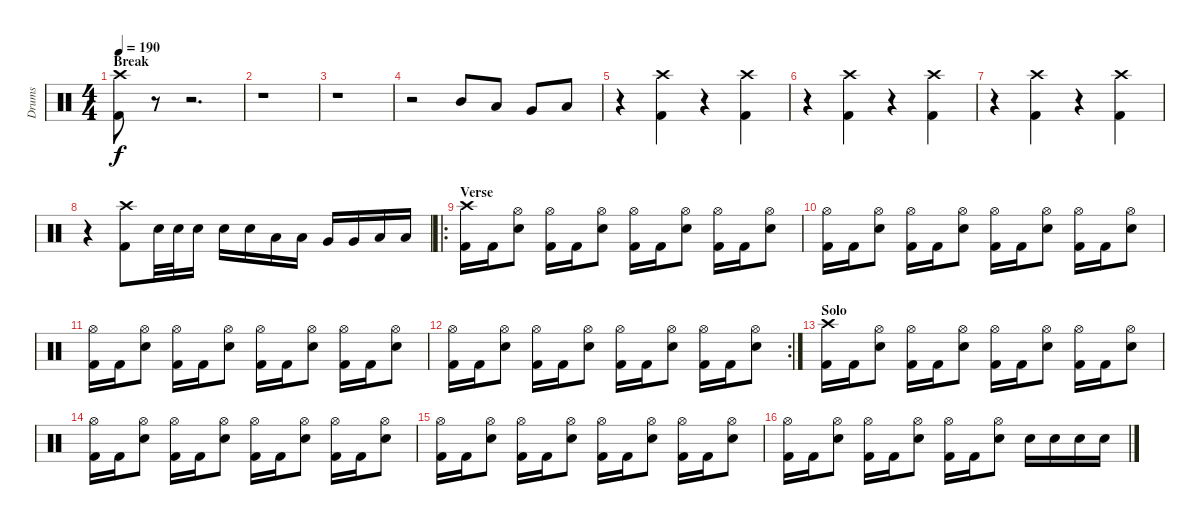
\track ("Drums" "Drums") {instrument percussion}
\staff {score}
\articulation defaults
\ts (4 4)
\section ("" "Break")
\tempo 190
\clef neutral
\ks c
("Crash high (hit)" "Kick (hit) 2").8{dy f} r.8{volume 0} r.2{d} |
r.1 |
r.1 |
r.2{volume 14} "Mid Tom (hit)".8 "Low Tom (hit)".8 "Very Low Tom (hit)".8 "Low Tom (hit)".8 |
r.4 ("Crash high (hit)" "Kick (hit) 2").4 r.4 ("Crash high (hit)" "Kick (hit) 2").4 |
r.4 ("Crash high (hit)" "Kick (hit) 2").4 r.4 ("Crash high (hit)" "Kick (hit) 2").4 |
r.4 ("Crash high (hit)" "Kick (hit) 2").4 r.4 ("Crash high (hit)" "Kick (hit) 2").4 |
r.4 ("Crash high (hit)" "Kick (hit) 2").8 "Electric Snare (hit)".32 "Electric Snare (hit)".32 "Electric Snare (hit)".16 "Electric Snare (hit)".16 "Electric Snare (hit)".16 "Low Tom (hit)".16 "Low Tom (hit)".16 "Very Low Tom (hit)".16 "Very Low Tom (hit)".16 "Low Floor Tom (hit)".16 "Low Floor Tom (hit)".16 |
\ro
\section ("" "Verse")
("Crash high (hit)" "Kick (hit) 2").16 "Kick (hit) 2".16 ("Hi-Hat (open)" "Electric Snare (hit)").8 ("Hi-Hat (open)" "Kick (hit) 2").16 "Kick (hit) 2".16 ("Hi-Hat (open)" "Electric Snare (hit)").8 ("Hi-Hat (open)" "Kick (hit) 2").16 "Kick (hit) 2".16 ("Hi-Hat (open)" "Electric Snare (hit)").8 ("Hi-Hat (open)" "Kick (hit) 2").16 "Kick (hit) 2".16 ("Hi-Hat (open)" "Electric Snare (hit)").8 |
("Hi-Hat (open)" "Kick (hit) 2").16 "Kick (hit) 2".16 ("Hi-Hat (open)" "Electric Snare (hit)").8 ("Hi-Hat (open)" "Kick (hit) 2").16 "Kick (hit) 2".16 ("Hi-Hat (open)" "Electric Snare (hit)").8 ("Hi-Hat (open)" "Kick (hit) 2").16 "Kick (hit) 2".16 ("Hi-Hat (open)" "Electric Snare (hit)").8 ("Hi-Hat (open)" "Kick (hit) 2").16 "Kick (hit) 2".16 ("Hi-Hat (open)" "Electric Snare (hit)").8 |
("Hi-Hat (open)" "Kick (hit) 2").16 "Kick (hit) 2".16 ("Hi-Hat (open)" "Electric Snare (hit)").8 ("Hi-Hat (open)" "Kick (hit) 2").16 "Kick (hit) 2".16 ("Hi-Hat (open)" "Electric Snare (hit)").8 ("Hi-Hat (open)" "Kick (hit) 2").16 "Kick (hit) 2".16 ("Hi-Hat (open)" "Electric Snare (hit)").8 ("Hi-Hat (open)" "Kick (hit) 2").16 "Kick (hit) 2".16 ("Hi-Hat (open)" "Electric Snare (hit)").8 |
\rc 2
("Hi-Hat (open)" "Kick (hit) 2").16 "Kick (hit) 2".16 ("Hi-Hat (open)" "Electric Snare (hit)").8 ("Hi-Hat (open)" "Kick (hit) 2").16 "Kick (hit) 2".16 ("Hi-Hat (open)" "Electric Snare (hit)").8 ("Hi-Hat (open)" "Kick (hit) 2").16 "Kick (hit) 2".16 ("Hi-Hat (open)" "Electric Snare (hit)").8 ("Hi-Hat (open)" "Kick (hit) 2").16 "Kick (hit) 2".16 ("Hi-Hat (open)" "Electric Snare (hit)").8 |
\section ("" "Solo")
("Crash high (hit)" "Kick (hit) 2").16 "Kick (hit) 2".16 ("Hi-Hat (open)" "Electric Snare (hit)").8 ("Hi-Hat (open)" "Kick (hit) 2").16 "Kick (hit) 2".16 ("Hi-Hat (open)" "Electric Snare (hit)").8 ("Hi-Hat (open)" "Kick (hit) 2").16 "Kick (hit) 2".16 ("Hi-Hat (open)" "Electric Snare (hit)").8 ("Hi-Hat (open)" "Kick (hit) 2").16 "Kick (hit) 2".16 ("Hi-Hat (open)" "Electric Snare (hit)").8 |
("Hi-Hat (open)" "Kick (hit) 2").16 "Kick (hit) 2".16 ("Hi-Hat (open)" "Electric Snare (hit)").8 ("Hi-Hat (open)" "Kick (hit) 2").16 "Kick (hit) 2".16 ("Hi-Hat (open)" "Electric Snare (hit)").8 ("Hi-Hat (open)" "Kick (hit) 2").16 "Kick (hit) 2".16 ("Hi-Hat (open)" "Electric Snare (hit)").8 ("Hi-Hat (open)" "Kick (hit) 2").16 "Kick (hit) 2".16 ("Hi-Hat (open)" "Electric Snare (hit)").8 |
("Hi-Hat (open)" "Kick (hit) 2").16 "Kick (hit) 2".16 ("Hi-Hat (open)" "Electric Snare (hit)").8 ("Hi-Hat (open)" "Kick (hit) 2").16 "Kick (hit) 2".16 ("Hi-Hat (open)" "Electric Snare (hit)").8 ("Hi-Hat (open)" "Kick (hit) 2").16 "Kick (hit) 2".16 ("Hi-Hat (open)" "Electric Snare (hit)").8 ("Hi-Hat (open)" "Kick (hit) 2").16 "Kick (hit) 2".16 ("Hi-Hat (open)" "Electric Snare (hit)").8 |
("Hi-Hat (open)" "Kick (hit) 2").16 "Kick (hit) 2".16 ("Hi-Hat (open)" "Electric Snare (hit)").8 ("Hi-Hat (open)" "Kick (hit) 2").16 "Kick (hit) 2".16 ("Hi-Hat (open)" "Electric Snare (hit)").8 ("Hi-Hat (open)" "Kick (hit) 2").16 "Kick (hit) 2".16 ("Hi-Hat (open)" "Electric Snare (hit)").8 "Electric Snare (hit)".16 "Electric Snare (hit)".16 "Electric Snare (hit)".16 "Electric Snare (hit)".16
